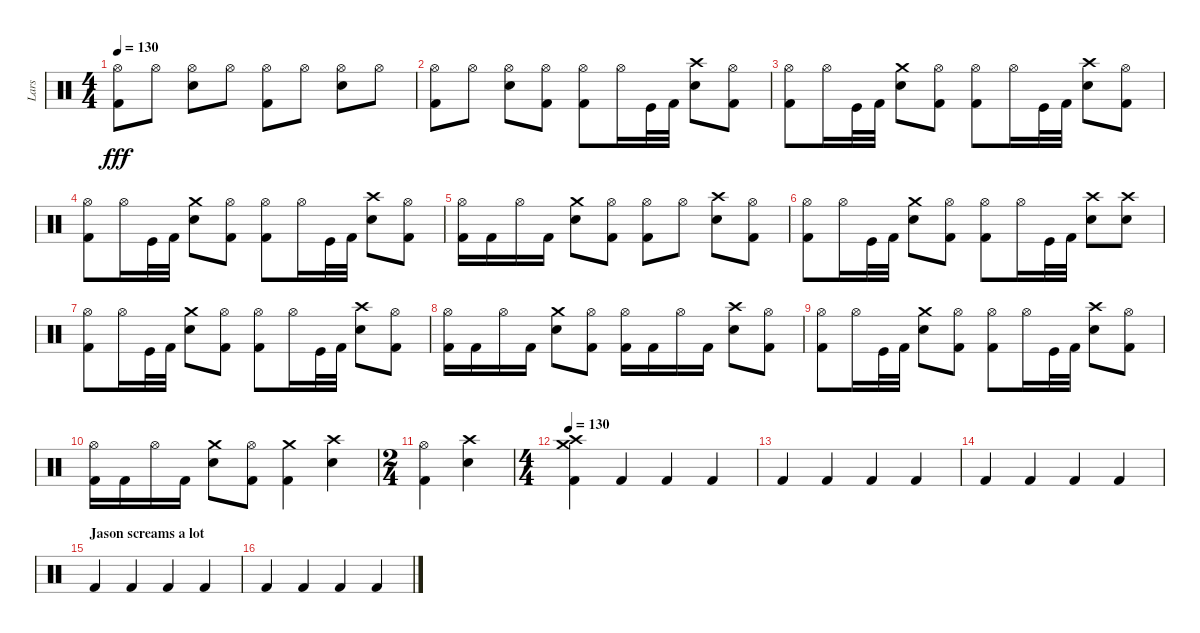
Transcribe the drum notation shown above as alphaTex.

\track ("Lars" "Lars") {instrument percussion}
\staff {score}
\articulation defaults
\ts (4 4)
\tempo 130
\clef neutral
\ks c
("Hi-Hat (open)" "Kick (hit) 2").8{dy fff} "Hi-Hat (open)".8 ("Hi-Hat (open)" "Snare (hit) 2").8 "Hi-Hat (open)".8 ("Hi-Hat (open)" "Kick (hit) 2").8 "Hi-Hat (open)".8 ("Hi-Hat (open)" "Snare (hit) 2").8 "Hi-Hat (open)".8 |
("Hi-Hat (open)" "Kick (hit) 2").8 "Hi-Hat (open)".8 ("Hi-Hat (open)" "Snare (hit) 2").8 ("Hi-Hat (open)" "Kick (hit) 2").8 ("Hi-Hat (open)" "Kick (hit) 2").8 "Hi-Hat (open)".16 "Kick (hit)".32 "Kick (hit) 2".32 ("Crash high (hit)" "Snare (hit) 2").8 ("Hi-Hat (open)" "Kick (hit) 2").8 |
("Hi-Hat (open)" "Kick (hit) 2").8 "Hi-Hat (open)".16 "Kick (hit)".32 "Kick (hit) 2".32 ("Crash medium (hit)" "Snare (hit) 2").8 ("Hi-Hat (open)" "Kick (hit) 2").8 ("Hi-Hat (open)" "Kick (hit) 2").8 "Hi-Hat (open)".16 "Kick (hit)".32 "Kick (hit) 2".32 ("Crash high (hit)" "Snare (hit) 2").8 ("Hi-Hat (open)" "Kick (hit) 2").8 |
("Hi-Hat (open)" "Kick (hit) 2").8 "Hi-Hat (open)".16 "Kick (hit)".32 "Kick (hit) 2".32 ("Crash medium (hit)" "Snare (hit) 2").8 ("Hi-Hat (open)" "Kick (hit) 2").8 ("Hi-Hat (open)" "Kick (hit) 2").8 "Hi-Hat (open)".16 "Kick (hit)".32 "Kick (hit) 2".32 ("Crash high (hit)" "Snare (hit) 2").8 ("Hi-Hat (open)" "Kick (hit) 2").8 |
("Hi-Hat (open)" "Kick (hit) 2").16 "Kick (hit) 2".16 "Hi-Hat (open)".16 "Kick (hit) 2".16 ("Crash medium (hit)" "Snare (hit) 2").8 ("Hi-Hat (open)" "Kick (hit) 2").8 ("Hi-Hat (open)" "Kick (hit) 2").8 "Hi-Hat (open)".8 ("Crash high (hit)" "Snare (hit) 2").8 ("Hi-Hat (open)" "Kick (hit) 2").8 |
("Hi-Hat (open)" "Kick (hit) 2").8 "Hi-Hat (open)".16 "Kick (hit)".32 "Kick (hit) 2".32 ("Crash medium (hit)" "Snare (hit) 2").8 ("Hi-Hat (open)" "Kick (hit) 2").8 ("Hi-Hat (open)" "Kick (hit) 2").8 "Hi-Hat (open)".16 "Kick (hit)".32 "Kick (hit) 2".32 ("Crash high (hit)" "Snare (hit) 2").8 ("Crash high (hit)" "Snare (hit) 2").8 |
("Hi-Hat (open)" "Kick (hit) 2").8 "Hi-Hat (open)".16 "Kick (hit)".32 "Kick (hit) 2".32 ("Crash medium (hit)" "Snare (hit) 2").8 ("Hi-Hat (open)" "Kick (hit) 2").8 ("Hi-Hat (open)" "Kick (hit) 2").8 "Hi-Hat (open)".16 "Kick (hit)".32 "Kick (hit) 2".32 ("Crash high (hit)" "Snare (hit) 2").8 ("Hi-Hat (open)" "Kick (hit) 2").8 |
("Hi-Hat (open)" "Kick (hit) 2").16 "Kick (hit) 2".16 "Hi-Hat (open)".16 "Kick (hit) 2".16 ("Crash medium (hit)" "Snare (hit) 2").8 ("Hi-Hat (open)" "Kick (hit) 2").8 ("Hi-Hat (open)" "Kick (hit) 2").16 "Kick (hit) 2".16 "Hi-Hat (open)".16 "Kick (hit) 2".16 ("Crash high (hit)" "Snare (hit) 2").8 ("Hi-Hat (open)" "Kick (hit) 2").8 |
("Hi-Hat (open)" "Kick (hit) 2").8 "Hi-Hat (open)".16 "Kick (hit)".32 "Kick (hit) 2".32 ("Crash medium (hit)" "Snare (hit) 2").8 ("Hi-Hat (open)" "Kick (hit) 2").8 ("Hi-Hat (open)" "Kick (hit) 2").8 "Hi-Hat (open)".16 "Kick (hit)".32 "Kick (hit) 2".32 ("Crash high (hit)" "Snare (hit) 2").8 ("Hi-Hat (open)" "Kick (hit) 2").8 |
("Hi-Hat (open)" "Kick (hit) 2").16 "Kick (hit) 2".16 "Hi-Hat (open)".16 "Kick (hit) 2".16 ("Crash medium (hit)" "Snare (hit) 2").8 ("Hi-Hat (open)" "Kick (hit) 2").8 ("Crash medium (hit)" "Kick (hit) 2").4 ("Crash high (hit)" "Snare (hit) 2").4 |
\ts (2 4)
("Hi-Hat (open)" "Kick (hit) 2").4 ("Crash high (hit)" "Snare (hit) 2").4 |
\ts (4 4)
\tempo 140
\tempo 130
("Crash high (hit)" "Crash medium (hit)" "Kick (hit) 2").4 "Kick (hit) 2".4 "Kick (hit) 2".4 "Kick (hit) 2".4 |
"Kick (hit) 2".4 "Kick (hit) 2".4 "Kick (hit) 2".4 "Kick (hit) 2".4 |
"Kick (hit) 2".4 "Kick (hit) 2".4 "Kick (hit) 2".4 "Kick (hit) 2".4 |
\section ("" "Jason screams a lot")
"Kick (hit) 2".4 "Kick (hit) 2".4 "Kick (hit) 2".4 "Kick (hit) 2".4 |
"Kick (hit) 2".4 "Kick (hit) 2".4 "Kick (hit) 2".4 "Kick (hit) 2".4
